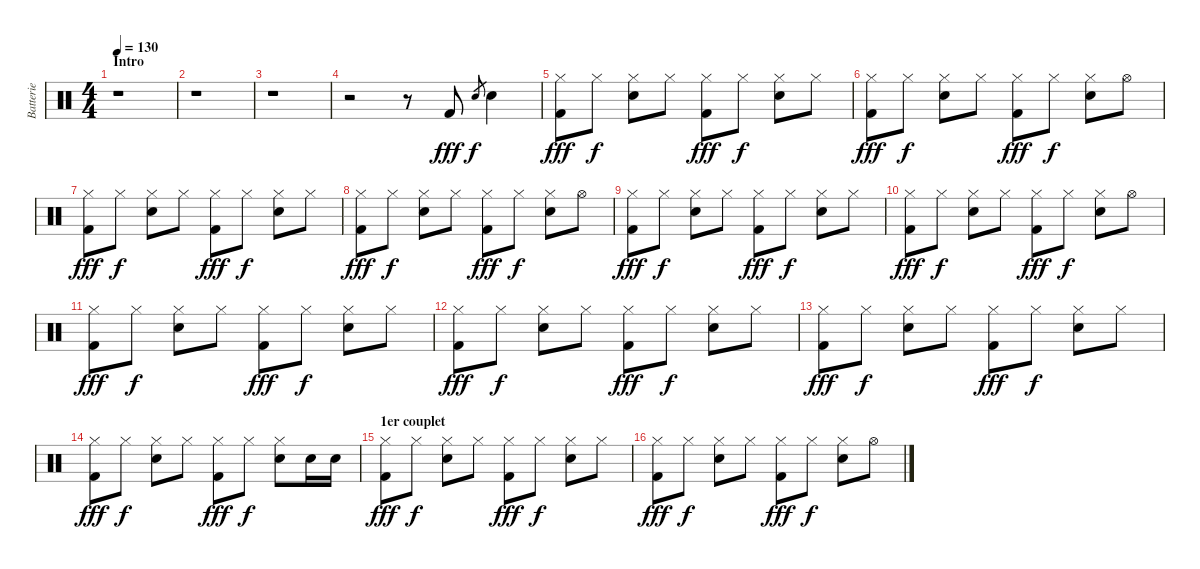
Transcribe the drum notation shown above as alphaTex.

\track ("Batterie" "Batterie") {instrument percussion}
\staff {score}
\articulation defaults
\ts (4 4)
\section ("" "Intro")
\tempo 130
\clef neutral
\ks c
r.1{dy fff} |
r.1 |
r.1 |
r.2 r.8 "Kick (hit) 2".8 "Snare (hit) 2".8{gr dy f} "Snare (hit) 2".4 |
("Hi-Hat (closed)" "Kick (hit) 2").8{dy fff} "Hi-Hat (closed)".8{dy f} ("Hi-Hat (closed)" "Snare (hit) 2").8 "Hi-Hat (closed)".8 ("Hi-Hat (closed)" "Kick (hit) 2").8{dy fff} "Hi-Hat (closed)".8{dy f} ("Hi-Hat (closed)" "Snare (hit) 2").8 "Hi-Hat (closed)".8 |
("Hi-Hat (closed)" "Kick (hit) 2").8{dy fff} "Hi-Hat (closed)".8{dy f} ("Hi-Hat (closed)" "Snare (hit) 2").8 "Hi-Hat (closed)".8 ("Hi-Hat (closed)" "Kick (hit) 2").8{dy fff} "Hi-Hat (closed)".8{dy f} ("Hi-Hat (closed)" "Snare (hit) 2").8 "Hi-Hat (open)".8 |
("Hi-Hat (closed)" "Kick (hit) 2").8{dy fff} "Hi-Hat (closed)".8{dy f} ("Hi-Hat (closed)" "Snare (hit) 2").8 "Hi-Hat (closed)".8 ("Hi-Hat (closed)" "Kick (hit) 2").8{dy fff} "Hi-Hat (closed)".8{dy f} ("Hi-Hat (closed)" "Snare (hit) 2").8 "Hi-Hat (closed)".8 |
("Hi-Hat (closed)" "Kick (hit) 2").8{dy fff} "Hi-Hat (closed)".8{dy f} ("Hi-Hat (closed)" "Snare (hit) 2").8 "Hi-Hat (closed)".8 ("Hi-Hat (closed)" "Kick (hit) 2").8{dy fff} "Hi-Hat (closed)".8{dy f} ("Hi-Hat (closed)" "Snare (hit) 2").8 "Hi-Hat (open)".8 |
("Hi-Hat (closed)" "Kick (hit) 2").8{dy fff} "Hi-Hat (closed)".8{dy f} ("Hi-Hat (closed)" "Snare (hit) 2").8 "Hi-Hat (closed)".8 ("Hi-Hat (closed)" "Kick (hit) 2").8{dy fff} "Hi-Hat (closed)".8{dy f} ("Hi-Hat (closed)" "Snare (hit) 2").8 "Hi-Hat (closed)".8 |
("Hi-Hat (closed)" "Kick (hit) 2").8{dy fff} "Hi-Hat (closed)".8{dy f} ("Hi-Hat (closed)" "Snare (hit) 2").8 "Hi-Hat (closed)".8 ("Hi-Hat (closed)" "Kick (hit) 2").8{dy fff} "Hi-Hat (closed)".8{dy f} ("Hi-Hat (closed)" "Snare (hit) 2").8 "Hi-Hat (open)".8 |
("Hi-Hat (closed)" "Kick (hit) 2").8{dy fff} "Hi-Hat (closed)".8{dy f} ("Hi-Hat (closed)" "Snare (hit) 2").8 "Hi-Hat (closed)".8 ("Hi-Hat (closed)" "Kick (hit) 2").8{dy fff} "Hi-Hat (closed)".8{dy f} ("Hi-Hat (closed)" "Snare (hit) 2").8 "Hi-Hat (closed)".8 |
("Hi-Hat (closed)" "Kick (hit) 2").8{dy fff} "Hi-Hat (closed)".8{dy f} ("Hi-Hat (closed)" "Snare (hit) 2").8 "Hi-Hat (closed)".8 ("Hi-Hat (closed)" "Kick (hit) 2").8{dy fff} "Hi-Hat (closed)".8{dy f} ("Hi-Hat (closed)" "Snare (hit) 2").8 "Hi-Hat (closed)".8 |
("Hi-Hat (closed)" "Kick (hit) 2").8{dy fff} "Hi-Hat (closed)".8{dy f} ("Hi-Hat (closed)" "Snare (hit) 2").8 "Hi-Hat (closed)".8 ("Hi-Hat (closed)" "Kick (hit) 2").8{dy fff} "Hi-Hat (closed)".8{dy f} ("Hi-Hat (closed)" "Snare (hit) 2").8 "Hi-Hat (closed)".8 |
("Hi-Hat (closed)" "Kick (hit) 2").8{dy fff} "Hi-Hat (closed)".8{dy f} ("Hi-Hat (closed)" "Snare (hit) 2").8 "Hi-Hat (closed)".8 ("Hi-Hat (closed)" "Kick (hit) 2").8{dy fff} "Hi-Hat (closed)".8{dy f} ("Hi-Hat (closed)" "Snare (hit) 2").8 "Snare (hit) 2".16 "Snare (hit) 2".16 |
\section ("" "1er couplet")
("Hi-Hat (closed)" "Kick (hit) 2").8{dy fff} "Hi-Hat (closed)".8{dy f} ("Hi-Hat (closed)" "Snare (hit) 2").8 "Hi-Hat (closed)".8 ("Hi-Hat (closed)" "Kick (hit) 2").8{dy fff} "Hi-Hat (closed)".8{dy f} ("Hi-Hat (closed)" "Snare (hit) 2").8 "Hi-Hat (closed)".8 |
("Hi-Hat (closed)" "Kick (hit) 2").8{dy fff} "Hi-Hat (closed)".8{dy f} ("Hi-Hat (closed)" "Snare (hit) 2").8 "Hi-Hat (closed)".8 ("Hi-Hat (closed)" "Kick (hit) 2").8{dy fff} "Hi-Hat (closed)".8{dy f} ("Hi-Hat (closed)" "Snare (hit) 2").8 "Hi-Hat (open)".8
